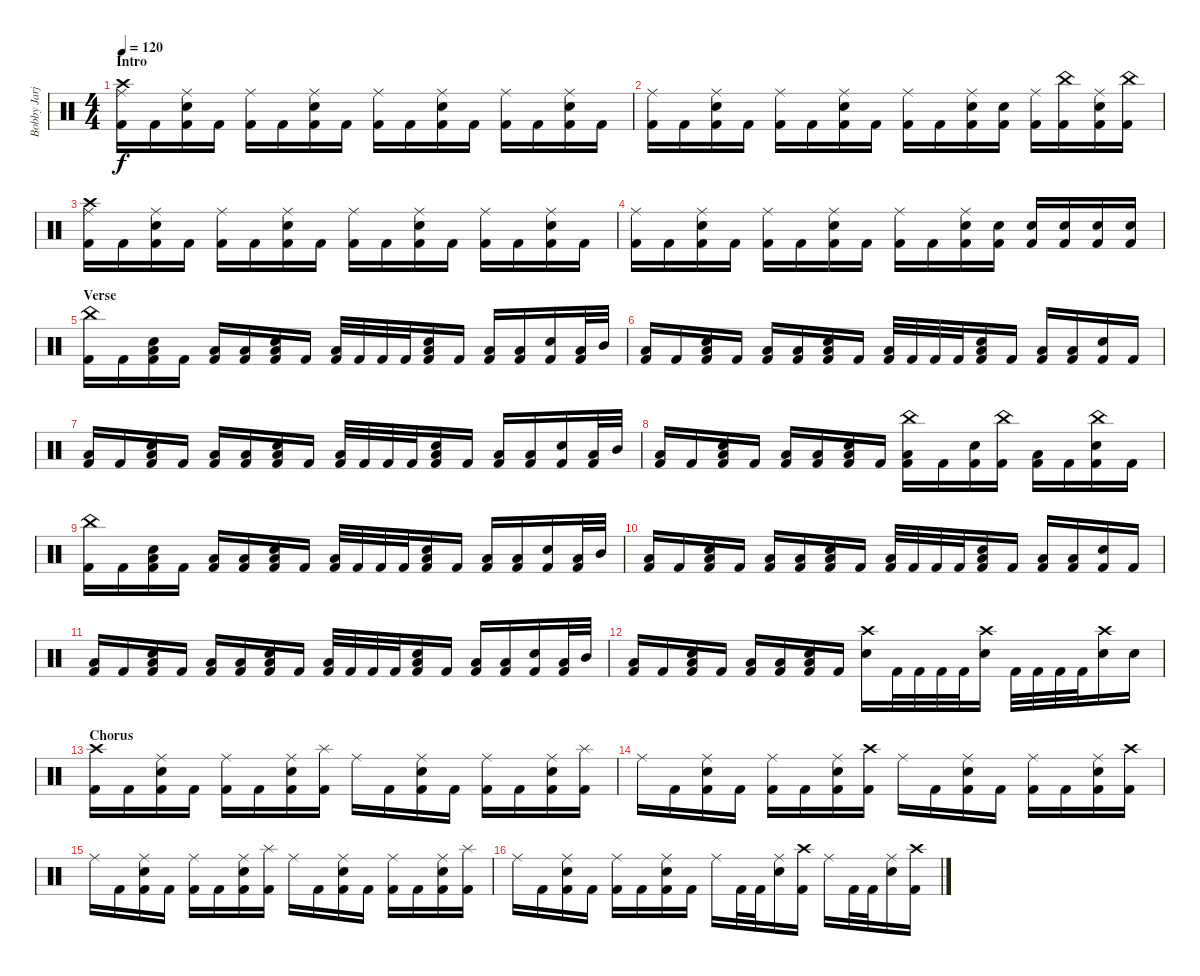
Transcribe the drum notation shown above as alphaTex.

\track ("Bobby Jarjombek" "Bobby Jarj") {instrument percussion}
\staff {score}
\articulation defaults
\ts (4 4)
\section ("" "Intro")
\tempo 120
\clef neutral
\ks c
("Kick (hit) 2" "Crash high (hit)" "Ride (middle)").16{dy f} "Kick (hit) 2".16 ("Kick (hit) 2" "Ride (middle)" "Electric Snare (hit)").16 "Kick (hit) 2".16 ("Kick (hit) 2" "Ride (middle)").16 "Kick (hit) 2".16 ("Kick (hit) 2" "Ride (middle)" "Electric Snare (hit)").16 "Kick (hit) 2".16 ("Kick (hit) 2" "Ride (middle)").16 "Kick (hit) 2".16 ("Kick (hit) 2" "Ride (middle)" "Electric Snare (hit)").16 "Kick (hit) 2".16 ("Kick (hit) 2" "Ride (middle)").16 "Kick (hit) 2".16 ("Kick (hit) 2" "Ride (middle)" "Electric Snare (hit)").16 "Kick (hit) 2".16 |
("Kick (hit) 2" "Ride (middle)").16 "Kick (hit) 2".16 ("Kick (hit) 2" "Ride (middle)" "Electric Snare (hit)").16 "Kick (hit) 2".16 ("Kick (hit) 2" "Ride (middle)").16 "Kick (hit) 2".16 ("Kick (hit) 2" "Ride (middle)" "Electric Snare (hit)").16 "Kick (hit) 2".16 ("Kick (hit) 2" "Ride (middle)").16 "Kick (hit) 2".16 ("Kick (hit) 2" "Ride (middle)" "Electric Snare (hit)").16 ("Kick (hit) 2" "Electric Snare (hit)").16 ("Kick (hit) 2" "Ride (middle)").16 ("Kick (hit) 2" "China (hit)").16 ("Kick (hit) 2" "Ride (middle)" "Electric Snare (hit)").16 ("Kick (hit) 2" "China (hit)").16 |
("Kick (hit) 2" "Crash high (hit)" "Ride (middle)").16 "Kick (hit) 2".16 ("Kick (hit) 2" "Ride (middle)" "Electric Snare (hit)").16 "Kick (hit) 2".16 ("Kick (hit) 2" "Ride (middle)").16 "Kick (hit) 2".16 ("Kick (hit) 2" "Ride (middle)" "Electric Snare (hit)").16 "Kick (hit) 2".16 ("Kick (hit) 2" "Ride (middle)").16 "Kick (hit) 2".16 ("Kick (hit) 2" "Ride (middle)" "Electric Snare (hit)").16 "Kick (hit) 2".16 ("Kick (hit) 2" "Ride (middle)").16 "Kick (hit) 2".16 ("Kick (hit) 2" "Ride (middle)" "Electric Snare (hit)").16 "Kick (hit) 2".16 |
("Kick (hit) 2" "Ride (middle)").16 "Kick (hit) 2".16 ("Kick (hit) 2" "Ride (middle)" "Electric Snare (hit)").16 "Kick (hit) 2".16 ("Kick (hit) 2" "Ride (middle)").16 "Kick (hit) 2".16 ("Kick (hit) 2" "Ride (middle)" "Electric Snare (hit)").16 "Kick (hit) 2".16 ("Kick (hit) 2" "Ride (middle)").16 "Kick (hit) 2".16 ("Kick (hit) 2" "Ride (middle)" "Electric Snare (hit)").16 ("Kick (hit) 2" "Electric Snare (hit)").16 ("Kick (hit) 2" "Electric Snare (hit)").16 ("Kick (hit) 2" "Electric Snare (hit)").16 ("Kick (hit) 2" "Electric Snare (hit)").16 ("Kick (hit) 2" "Electric Snare (hit)").16 |
\section ("" "Verse")
("Kick (hit) 2" "China (hit)").16 "Kick (hit) 2".16 ("Kick (hit) 2" "Electric Snare (hit)" "Low Tom (hit)").16 "Kick (hit) 2".16 ("Kick (hit) 2" "Low Tom (hit)").16 ("Kick (hit) 2" "Low Tom (hit)").16 ("Kick (hit) 2" "Electric Snare (hit)" "Low Tom (hit)").16 "Kick (hit) 2".16 ("Kick (hit) 2" "Low Tom (hit)").32 "Kick (hit) 2".32 "Kick (hit) 2".32 "Kick (hit) 2".32 ("Kick (hit) 2" "Electric Snare (hit)" "Low Tom (hit)").16 "Kick (hit) 2".16 ("Kick (hit) 2" "Low Tom (hit)").16 ("Kick (hit) 2" "Low Tom (hit)").16 ("Kick (hit) 2" "Electric Snare (hit)").16 ("Kick (hit) 2" "Low Tom (hit)").32 "Mid Tom (hit)".32 |
("Kick (hit) 2" "Low Tom (hit)").16 "Kick (hit) 2".16 ("Kick (hit) 2" "Electric Snare (hit)" "Low Tom (hit)").16 "Kick (hit) 2".16 ("Kick (hit) 2" "Low Tom (hit)").16 ("Kick (hit) 2" "Low Tom (hit)").16 ("Kick (hit) 2" "Electric Snare (hit)" "Low Tom (hit)").16 "Kick (hit) 2".16 ("Kick (hit) 2" "Low Tom (hit)").32 "Kick (hit) 2".32 "Kick (hit) 2".32 "Kick (hit) 2".32 ("Kick (hit) 2" "Electric Snare (hit)" "Low Tom (hit)").16 "Kick (hit) 2".16 ("Kick (hit) 2" "Low Tom (hit)").16 ("Kick (hit) 2" "Low Tom (hit)").16 ("Kick (hit) 2" "Electric Snare (hit)").16 "Kick (hit) 2".16 |
("Kick (hit) 2" "Low Tom (hit)").16 "Kick (hit) 2".16 ("Kick (hit) 2" "Electric Snare (hit)" "Low Tom (hit)").16 "Kick (hit) 2".16 ("Kick (hit) 2" "Low Tom (hit)").16 ("Kick (hit) 2" "Low Tom (hit)").16 ("Kick (hit) 2" "Electric Snare (hit)" "Low Tom (hit)").16 "Kick (hit) 2".16 ("Kick (hit) 2" "Low Tom (hit)").32 "Kick (hit) 2".32 "Kick (hit) 2".32 "Kick (hit) 2".32 ("Kick (hit) 2" "Electric Snare (hit)" "Low Tom (hit)").16 "Kick (hit) 2".16 ("Kick (hit) 2" "Low Tom (hit)").16 ("Kick (hit) 2" "Low Tom (hit)").16 ("Kick (hit) 2" "Electric Snare (hit)").16 ("Kick (hit) 2" "Low Tom (hit)").32 "Mid Tom (hit)".32 |
("Kick (hit) 2" "Low Tom (hit)").16 "Kick (hit) 2".16 ("Kick (hit) 2" "Electric Snare (hit)" "Low Tom (hit)").16 "Kick (hit) 2".16 ("Kick (hit) 2" "Low Tom (hit)").16 ("Kick (hit) 2" "Low Tom (hit)").16 ("Kick (hit) 2" "Electric Snare (hit)" "Low Tom (hit)").16 "Kick (hit) 2".16 ("Kick (hit) 2" "China (hit)" "Low Tom (hit)").16 "Kick (hit) 2".16 ("Kick (hit) 2" "Electric Snare (hit)").16 ("Kick (hit) 2" "China (hit)").16 ("Kick (hit) 2" "Low Tom (hit)").16 "Kick (hit) 2".16 ("Kick (hit) 2" "China (hit)" "Electric Snare (hit)").16 "Kick (hit) 2".16 |
("Kick (hit) 2" "China (hit)").16 "Kick (hit) 2".16 ("Kick (hit) 2" "Electric Snare (hit)" "Low Tom (hit)").16 "Kick (hit) 2".16 ("Kick (hit) 2" "Low Tom (hit)").16 ("Kick (hit) 2" "Low Tom (hit)").16 ("Kick (hit) 2" "Electric Snare (hit)" "Low Tom (hit)").16 "Kick (hit) 2".16 ("Kick (hit) 2" "Low Tom (hit)").32 "Kick (hit) 2".32 "Kick (hit) 2".32 "Kick (hit) 2".32 ("Kick (hit) 2" "Electric Snare (hit)" "Low Tom (hit)").16 "Kick (hit) 2".16 ("Kick (hit) 2" "Low Tom (hit)").16 ("Kick (hit) 2" "Low Tom (hit)").16 ("Kick (hit) 2" "Electric Snare (hit)").16 ("Kick (hit) 2" "Low Tom (hit)").32 "Mid Tom (hit)".32 |
("Kick (hit) 2" "Low Tom (hit)").16 "Kick (hit) 2".16 ("Kick (hit) 2" "Electric Snare (hit)" "Low Tom (hit)").16 "Kick (hit) 2".16 ("Kick (hit) 2" "Low Tom (hit)").16 ("Kick (hit) 2" "Low Tom (hit)").16 ("Kick (hit) 2" "Electric Snare (hit)" "Low Tom (hit)").16 "Kick (hit) 2".16 ("Kick (hit) 2" "Low Tom (hit)").32 "Kick (hit) 2".32 "Kick (hit) 2".32 "Kick (hit) 2".32 ("Kick (hit) 2" "Electric Snare (hit)" "Low Tom (hit)").16 "Kick (hit) 2".16 ("Kick (hit) 2" "Low Tom (hit)").16 ("Kick (hit) 2" "Low Tom (hit)").16 ("Kick (hit) 2" "Electric Snare (hit)").16 "Kick (hit) 2".16 |
("Kick (hit) 2" "Low Tom (hit)").16 "Kick (hit) 2".16 ("Kick (hit) 2" "Electric Snare (hit)" "Low Tom (hit)").16 "Kick (hit) 2".16 ("Kick (hit) 2" "Low Tom (hit)").16 ("Kick (hit) 2" "Low Tom (hit)").16 ("Kick (hit) 2" "Electric Snare (hit)" "Low Tom (hit)").16 "Kick (hit) 2".16 ("Kick (hit) 2" "Low Tom (hit)").32 "Kick (hit) 2".32 "Kick (hit) 2".32 "Kick (hit) 2".32 ("Kick (hit) 2" "Electric Snare (hit)" "Low Tom (hit)").16 "Kick (hit) 2".16 ("Kick (hit) 2" "Low Tom (hit)").16 ("Kick (hit) 2" "Low Tom (hit)").16 ("Kick (hit) 2" "Electric Snare (hit)").16 ("Kick (hit) 2" "Low Tom (hit)").32 "Mid Tom (hit)".32 |
("Kick (hit) 2" "Low Tom (hit)").16 "Kick (hit) 2".16 ("Kick (hit) 2" "Electric Snare (hit)" "Low Tom (hit)").16 "Kick (hit) 2".16 ("Kick (hit) 2" "Low Tom (hit)").16 ("Kick (hit) 2" "Low Tom (hit)").16 ("Kick (hit) 2" "Electric Snare (hit)" "Low Tom (hit)").16 "Kick (hit) 2".16 ("Crash high (hit)" "Electric Snare (hit)").16 "Kick (hit) 2".32 "Kick (hit) 2".32 "Kick (hit) 2".32 "Kick (hit) 2".32 ("Crash high (hit)" "Electric Snare (hit)").16 "Kick (hit) 2".32 "Kick (hit) 2".32 "Kick (hit) 2".32 "Kick (hit) 2".32 ("Crash high (hit)" "Electric Snare (hit)").16 "Electric Snare (hit)".16 |
\section ("" "Chorus")
("Kick (hit) 2" "Crash high (hit)").16 "Kick (hit) 2".16 ("Kick (hit) 2" "Ride (middle)" "Electric Snare (hit)").16 "Kick (hit) 2".16 ("Kick (hit) 2" "Ride (middle)").16 "Kick (hit) 2".16 ("Kick (hit) 2" "Ride (middle)" "Electric Snare (hit)").16 ("Kick (hit) 2" "Splash (hit)").16 "Ride (middle)".16 "Kick (hit) 2".16 ("Kick (hit) 2" "Ride (middle)" "Electric Snare (hit)").16 "Kick (hit) 2".16 ("Kick (hit) 2" "Ride (middle)").16 "Kick (hit) 2".16 ("Kick (hit) 2" "Ride (middle)" "Electric Snare (hit)").16 ("Kick (hit) 2" "Splash (hit)").16 |
"Ride (middle)".16 "Kick (hit) 2".16 ("Kick (hit) 2" "Ride (middle)" "Electric Snare (hit)").16 "Kick (hit) 2".16 ("Kick (hit) 2" "Ride (middle)").16 "Kick (hit) 2".16 ("Kick (hit) 2" "Ride (middle)" "Electric Snare (hit)").16 ("Kick (hit) 2" "Crash high (hit)").16 "Ride (middle)".16 "Kick (hit) 2".16 ("Kick (hit) 2" "Ride (middle)" "Electric Snare (hit)").16 "Kick (hit) 2".16 ("Kick (hit) 2" "Ride (middle)").16 "Kick (hit) 2".16 ("Kick (hit) 2" "Ride (middle)" "Electric Snare (hit)").16 ("Kick (hit) 2" "Crash high (hit)").16 |
"Ride (middle)".16 "Kick (hit) 2".16 ("Kick (hit) 2" "Ride (middle)" "Electric Snare (hit)").16 "Kick (hit) 2".16 ("Kick (hit) 2" "Ride (middle)").16 "Kick (hit) 2".16 ("Kick (hit) 2" "Ride (middle)" "Electric Snare (hit)").16 ("Kick (hit) 2" "Splash (hit)").16 "Ride (middle)".16 "Kick (hit) 2".16 ("Kick (hit) 2" "Ride (middle)" "Electric Snare (hit)").16 "Kick (hit) 2".16 ("Kick (hit) 2" "Ride (middle)").16 "Kick (hit) 2".16 ("Kick (hit) 2" "Ride (middle)" "Electric Snare (hit)").16 ("Kick (hit) 2" "Splash (hit)").16 |
"Ride (middle)".16 "Kick (hit) 2".16 ("Kick (hit) 2" "Ride (middle)" "Electric Snare (hit)").16 "Kick (hit) 2".16 ("Kick (hit) 2" "Ride (middle)").16 "Kick (hit) 2".16 ("Kick (hit) 2" "Ride (middle)" "Electric Snare (hit)").16 "Kick (hit) 2".16 "Ride (middle)".16 "Kick (hit) 2".32 "Kick (hit) 2".32 ("Ride (middle)" "Electric Snare (hit)").16 ("Kick (hit) 2" "Crash high (hit)").16 "Ride (middle)".16 "Kick (hit) 2".32 "Kick (hit) 2".32 ("Ride (middle)" "Electric Snare (hit)").16 ("Kick (hit) 2" "Crash high (hit)").16
